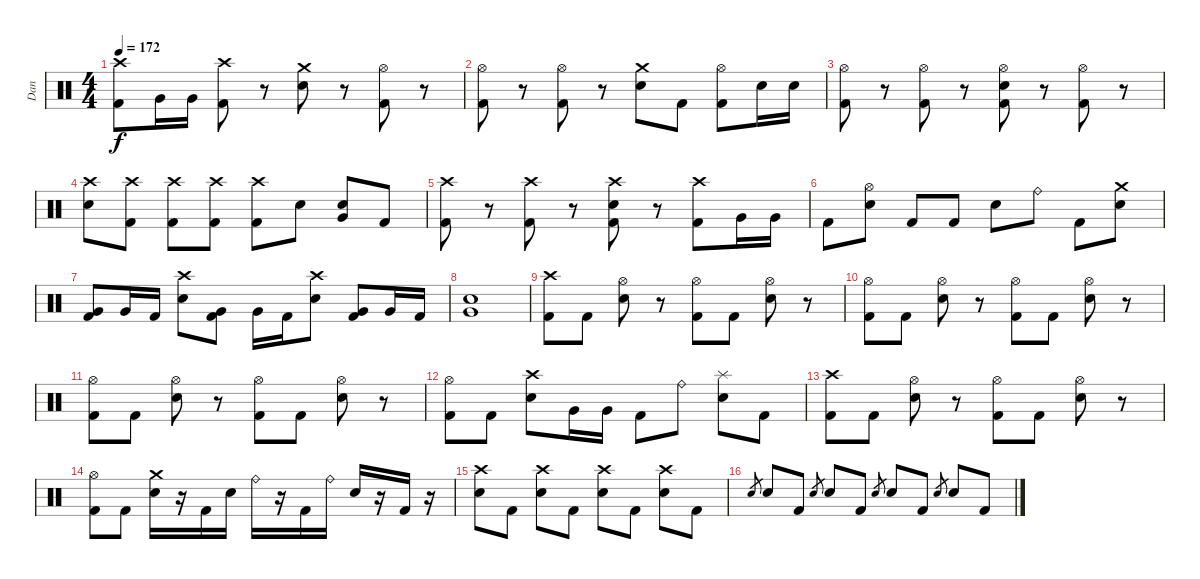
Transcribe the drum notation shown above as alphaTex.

\track ("Dan" "Dan") {instrument percussion}
\staff {score}
\articulation defaults
\ts (4 4)
\tempo 172
\clef neutral
\ks c
("Crash high (hit)" "Kick (hit) 2").8{dy f} "Very Low Tom (hit)".16 "Very Low Tom (hit)".16 ("Crash high (hit)" "Kick (hit) 2").8 r.8 ("Crash medium (hit)" "Electric Snare (hit)").8 r.8 ("Hi-Hat (open)" "Kick (hit) 2").8 r.8 |
("Hi-Hat (open)" "Kick (hit) 2").8 r.8 ("Hi-Hat (open)" "Kick (hit) 2").8 r.8 ("Crash medium (hit)" "Electric Snare (hit)").8 "Kick (hit) 2".8 ("Hi-Hat (open)" "Kick (hit) 2").8 "Electric Snare (hit)".16 "Electric Snare (hit)".16 |
("Hi-Hat (open)" "Kick (hit) 2").8 r.8 ("Hi-Hat (open)" "Kick (hit) 2").8 r.8 ("Hi-Hat (open)" "Electric Snare (hit)" "Kick (hit) 2").8 r.8 ("Hi-Hat (open)" "Kick (hit) 2").8 r.8 |
("Crash high (hit)" "Electric Snare (hit)").8 ("Crash high (hit)" "Kick (hit) 2").8 ("Crash high (hit)" "Kick (hit) 2").8 ("Crash high (hit)" "Kick (hit) 2").8 ("Crash high (hit)" "Kick (hit) 2").8 "Electric Snare (hit)".8 ("Electric Snare (hit)" "Very Low Tom (hit)").8 "Kick (hit) 2".8 |
("Crash high (hit)" "Kick (hit) 2").8 r.8 ("Crash high (hit)" "Kick (hit) 2").8 r.8 ("Crash high (hit)" "Electric Snare (hit)" "Kick (hit) 2").8 r.8 ("Crash high (hit)" "Kick (hit) 2").8 "Very Low Tom (hit)".16 "Very Low Tom (hit)".16 |
"Kick (hit) 2".8 ("Hi-Hat (open)" "Electric Snare (hit)").8 "Kick (hit) 2".8 "Kick (hit) 2".8 "Electric Snare (hit)".8 "Ride (bell)".8 "Kick (hit) 2".8 ("Crash medium (hit)" "Electric Snare (hit)").8 |
("Very Low Tom (hit)" "Kick (hit) 2").8 "Very Low Tom (hit)".16 "Kick (hit) 2".16 ("Crash high (hit)" "Electric Snare (hit)").8 ("Very Low Tom (hit)" "Kick (hit) 2").8 "Very Low Tom (hit)".16 "Kick (hit) 2".16 ("Crash high (hit)" "Electric Snare (hit)").8 ("Very Low Tom (hit)" "Kick (hit) 2").8 "Very Low Tom (hit)".16 "Kick (hit) 2".16 |
("Electric Snare (hit)" "Very Low Tom (hit)").1 |
("Crash high (hit)" "Kick (hit) 2").8 "Kick (hit) 2".8 ("Hi-Hat (open)" "Electric Snare (hit)").8 r.8 ("Hi-Hat (open)" "Kick (hit) 2").8 "Kick (hit) 2".8 ("Hi-Hat (open)" "Electric Snare (hit)").8 r.8 |
("Hi-Hat (open)" "Kick (hit) 2").8 "Kick (hit) 2".8 ("Hi-Hat (open)" "Electric Snare (hit)").8 r.8 ("Hi-Hat (open)" "Kick (hit) 2").8 "Kick (hit) 2".8 ("Hi-Hat (open)" "Electric Snare (hit)").8 r.8 |
("Hi-Hat (open)" "Kick (hit) 2").8 "Kick (hit) 2".8 ("Hi-Hat (open)" "Electric Snare (hit)").8 r.8 ("Hi-Hat (open)" "Kick (hit) 2").8 "Kick (hit) 2".8 ("Hi-Hat (open)" "Electric Snare (hit)").8 r.8 |
("Hi-Hat (open)" "Kick (hit) 2").8 "Kick (hit) 2".8 ("Crash high (hit)" "Electric Snare (hit)").8 "Very Low Tom (hit)".16 "Very Low Tom (hit)".16 "Kick (hit) 2".8 "Ride (bell)".8 ("Splash (hit)" "Electric Snare (hit)").8 "Kick (hit) 2".8 |
("Crash high (hit)" "Kick (hit) 2").8 "Kick (hit) 2".8 ("Hi-Hat (open)" "Electric Snare (hit)").8 r.8 ("Hi-Hat (open)" "Kick (hit) 2").8 "Kick (hit) 2".8 ("Hi-Hat (open)" "Electric Snare (hit)").8 r.8 |
("Hi-Hat (open)" "Kick (hit) 2").8 "Kick (hit) 2".8 ("Crash medium (hit)" "Electric Snare (hit)").16 r.16 "Kick (hit) 2".16 "Electric Snare (hit)".16 "Ride (bell)".16 r.16 "Kick (hit) 2".16 "Ride (bell)".16 "Electric Snare (hit)".16 r.16 "Kick (hit) 2".16 r.16 |
("Crash high (hit)" "Electric Snare (hit)").8 "Kick (hit) 2".8 ("Crash high (hit)" "Electric Snare (hit)").8 "Kick (hit) 2".8 ("Crash high (hit)" "Electric Snare (hit)").8 "Kick (hit) 2".8 ("Crash high (hit)" "Electric Snare (hit)").8 "Kick (hit) 2".8 |
"Electric Snare (hit)".8{gr} "Electric Snare (hit)".8 "Kick (hit) 2".8 "Electric Snare (hit)".8{gr} "Electric Snare (hit)".8 "Kick (hit) 2".8 "Electric Snare (hit)".8{gr} "Electric Snare (hit)".8 "Kick (hit) 2".8 "Electric Snare (hit)".8{gr} "Electric Snare (hit)".8 "Kick (hit) 2".8
